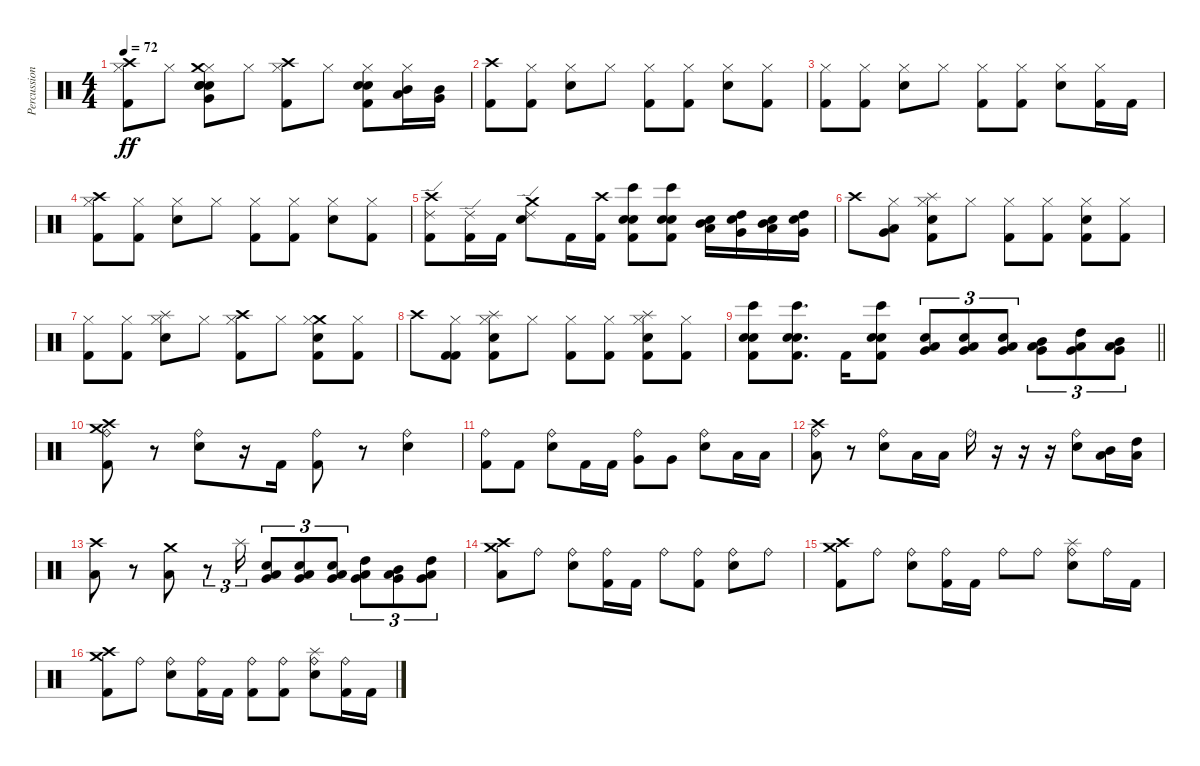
\track ("Percussion" "Percussion") {instrument percussion}
\staff {score}
\articulation defaults
\ts (4 4)
\tempo 72
\clef neutral
\ks c
("Hi-Hat (closed)" "Crash high (hit)" "Kick (hit) 2").8{dy ff} "Hi-Hat (closed)".8 ("Hand Clap (hit)" "Electric Snare (hit)" "Hi-Hat (closed)" "Crash medium (hit)" "Very Low Tom (hit)" "Snare (hit) 2").8 "Hi-Hat (closed)".8 ("Hi-Hat (closed)" "Crash high (hit)" "Kick (hit) 2").8 "Hi-Hat (closed)".8 ("Hi-Hat (closed)" "Snare (hit) 2" "Electric Snare (hit)" "Kick (hit) 2").8 ("Hi-Hat (closed)" "Low Floor Tom (hit)" "Mid Tom (hit)").16 ("Very Low Tom (hit)" "Mid Tom (hit)").16 |
("Crash high (hit)" "Kick (hit) 2").8 ("Hi-Hat (closed)" "Kick (hit) 2").8 ("Hi-Hat (closed)" "Snare (hit) 2").8 "Hi-Hat (closed)".8 ("Hi-Hat (closed)" "Kick (hit) 2").8 ("Hi-Hat (closed)" "Kick (hit) 2").8 ("Hi-Hat (closed)" "Snare (hit) 2").8 ("Hi-Hat (closed)" "Kick (hit) 2").8 |
("Hi-Hat (closed)" "Kick (hit) 2").8 ("Hi-Hat (closed)" "Kick (hit) 2").8 ("Hi-Hat (closed)" "Snare (hit) 2").8 "Hi-Hat (closed)".8 ("Hi-Hat (closed)" "Kick (hit) 2").8 ("Hi-Hat (closed)" "Kick (hit) 2").8 ("Hi-Hat (closed)" "Snare (hit) 2").8 ("Hi-Hat (closed)" "Kick (hit) 2").16 "Kick (hit) 2".16 |
("Hi-Hat (closed)" "Crash high (hit)" "Kick (hit) 2").8 ("Hi-Hat (closed)" "Kick (hit) 2").8 ("Hi-Hat (closed)" "Snare (hit) 2").8 "Hi-Hat (closed)".8 ("Hi-Hat (closed)" "Kick (hit) 2").8 ("Hi-Hat (closed)" "Kick (hit) 2").8 ("Hi-Hat (closed)" "Snare (hit) 2").8 ("Hi-Hat (closed)" "Kick (hit) 2").8 |
("Ride (edge) 2" "Crash high (hit)" "Kick (hit) 2").8 ("Ride (edge) 2" "Kick (hit) 2").16 "Kick (hit) 2".16 ("Ride (edge) 2" "Crash medium (hit)" "Snare (hit) 2").8 "Kick (hit) 2".16 ("Crash high (hit)" "Kick (hit) 2").16 ("Bongo High (hit)" "Electric Snare (hit)" "Snare (hit) 2" "Kick (hit) 2").8 ("Bongo High (hit)" "Electric Snare (hit)" "Snare (hit) 2" "Kick (hit) 2").8 ("Low Floor Tom (hit)" "Mid Tom (hit)" "Hand Clap (hit)").16 ("Very Low Tom (hit)" "High Tom (hit)" "Hand Clap (hit)").16 ("Low Floor Tom (hit)" "Mid Tom (hit)" "Hand Clap (hit)").16 ("Very Low Tom (hit)" "High Tom (hit)" "Hand Clap (hit)").16 |
"Crash high (hit)".8 ("Hi-Hat (closed)" "Very Low Tom (hit)" "Low Floor Tom (hit)").8 ("Splash (hit)" "Hi-Hat (closed)" "Snare (hit) 2" "Kick (hit) 2").8 "Hi-Hat (closed)".8 ("Hi-Hat (closed)" "Kick (hit) 2").8 ("Hi-Hat (closed)" "Kick (hit) 2").8 ("Hi-Hat (closed)" "Snare (hit) 2" "Kick (hit) 2").8 ("Hi-Hat (closed)" "Kick (hit) 2").8 |
("Hi-Hat (closed)" "Kick (hit) 2").8 ("Hi-Hat (closed)" "Kick (hit) 2").8 ("Splash (hit)" "Hi-Hat (closed)" "Snare (hit) 2").8 "Hi-Hat (closed)".8 ("Crash high (hit)" "Hi-Hat (closed)" "Kick (hit) 2").8 "Hi-Hat (closed)".8 ("Crash medium (hit)" "Hi-Hat (closed)" "Snare (hit) 2" "Kick (hit) 2").8 ("Hi-Hat (closed)" "Kick (hit) 2").8 |
"Crash high (hit)".8 ("Hi-Hat (closed)" "Kick (hit) 2" "Kick (hit) 2").8 ("Splash (hit)" "Hi-Hat (closed)" "Snare (hit) 2" "Kick (hit) 2").8 "Hi-Hat (closed)".8 ("Hi-Hat (closed)" "Kick (hit) 2").8 ("Hi-Hat (closed)" "Kick (hit) 2").8 ("Splash (hit)" "Hi-Hat (closed)" "Snare (hit) 2" "Kick (hit) 2").8 ("Hi-Hat (closed)" "Kick (hit) 2").8 |
\barLineRight lightlight
("Electric Snare (hit)" "Snare (hit) 2" "Bongo High (hit)" "Kick (hit) 2").8 ("Electric Snare (hit)" "Snare (hit) 2" "Bongo High (hit)" "Kick (hit) 2").8{d} "Kick (hit) 2".16 ("Bongo High (hit)" "Electric Snare (hit)" "Snare (hit) 2" "Kick (hit) 2").8 ("Snare (hit) 2" "Low Floor Tom (hit)" "Very Low Tom (hit)").8{tu (3 2)} ("Snare (hit) 2" "Low Floor Tom (hit)" "Very Low Tom (hit)").8{tu (3 2)} ("Snare (hit) 2" "Low Floor Tom (hit)" "Very Low Tom (hit)").8{tu (3 2)} ("Mid Tom (hit)" "Low Floor Tom (hit)" "Very Low Tom (hit)").8{tu (3 2)} ("High Tom (hit)" "Low Floor Tom (hit)" "Very Low Tom (hit)").8{tu (3 2)} ("Mid Tom (hit)" "Low Floor Tom (hit)" "Very Low Tom (hit)").8{tu (3 2)} |
("Crash high (hit)" "Ride (bell)" "Crash medium (hit)" "Kick (hit) 2").8 r.8 ("Ride (bell)" "Snare (hit) 2").8 r.16 "Kick (hit) 2".16 ("Ride (bell)" "Kick (hit) 2").8 r.8 ("Ride (bell)" "Snare (hit) 2").4 |
("Ride (bell)" "Kick (hit) 2").8 "Kick (hit) 2".8 ("Ride (bell)" "Snare (hit) 2").8 "Kick (hit) 2".16 "Kick (hit) 2".16 ("Ride (bell)" "Very Low Tom (hit)").8 "Very Low Tom (hit)".8 ("Ride (bell)" "Snare (hit) 2").8 "Low Floor Tom (hit)".16 "Low Floor Tom (hit)".16 |
("Ride (bell)" "Low Floor Tom (hit)" "Crash high (hit)").8 r.8 ("Ride (bell)" "Snare (hit) 2").8 "Low Floor Tom (hit)".16 "Low Floor Tom (hit)".16 "Ride (bell)".16 r.16 r.16 r.16 ("Snare (hit) 2" "Ride (bell)").8 ("Mid Tom (hit)" "Low Floor Tom (hit)").16 ("High Tom (hit)" "Low Floor Tom (hit)").16 |
("Crash high (hit)" "Low Floor Tom (hit)").8 r.8 ("Crash medium (hit)" "Low Floor Tom (hit)").8 r.8{tu (3 2)} "Splash (hit)".16{tu (3 2)} ("Snare (hit) 2" "Low Floor Tom (hit)" "Very Low Tom (hit)").8{tu (3 2)} ("Snare (hit) 2" "Low Floor Tom (hit)" "Very Low Tom (hit)").8{tu (3 2)} ("Snare (hit) 2" "Low Floor Tom (hit)" "Very Low Tom (hit)").8{tu (3 2)} ("High Tom (hit)" "Low Floor Tom (hit)" "Very Low Tom (hit)").8{tu (3 2)} ("Mid Tom (hit)" "Low Floor Tom (hit)" "Very Low Tom (hit)").8{tu (3 2)} ("High Tom (hit)" "Low Floor Tom (hit)" "Very Low Tom (hit)").8{tu (3 2)} |
("Crash high (hit)" "Crash medium (hit)" "Low Floor Tom (hit)").8 "Ride (bell)".8 ("Ride (bell)" "Snare (hit) 2").8 ("Ride (bell)" "Kick (hit) 2").16 "Kick (hit) 2".16 "Ride (bell)".8 ("Ride (bell)" "Kick (hit) 2").8 ("Ride (bell)" "Snare (hit) 2").8 "Ride (bell)".8 |
("Crash high (hit)" "Crash medium (hit)" "Kick (hit) 2").8 "Ride (bell)".8 ("Ride (bell)" "Snare (hit) 2").8 ("Ride (bell)" "Kick (hit) 2").16 "Kick (hit) 2".16 "Ride (bell)".8 "Ride (bell)".8 ("Splash (hit)" "Ride (bell)" "Snare (hit) 2").8 "Ride (bell)".16 "Kick (hit) 2".16 |
("Crash high (hit)" "Crash medium (hit)" "Kick (hit) 2").8 "Ride (bell)".8 ("Ride (bell)" "Snare (hit) 2").8 ("Ride (bell)" "Kick (hit) 2").16 "Kick (hit) 2".16 ("Ride (bell)" "Kick (hit) 2").8 ("Ride (bell)" "Kick (hit) 2").8 ("Splash (hit)" "Ride (bell)" "Snare (hit) 2").8 ("Ride (bell)" "Kick (hit) 2").16 "Kick (hit) 2".16
